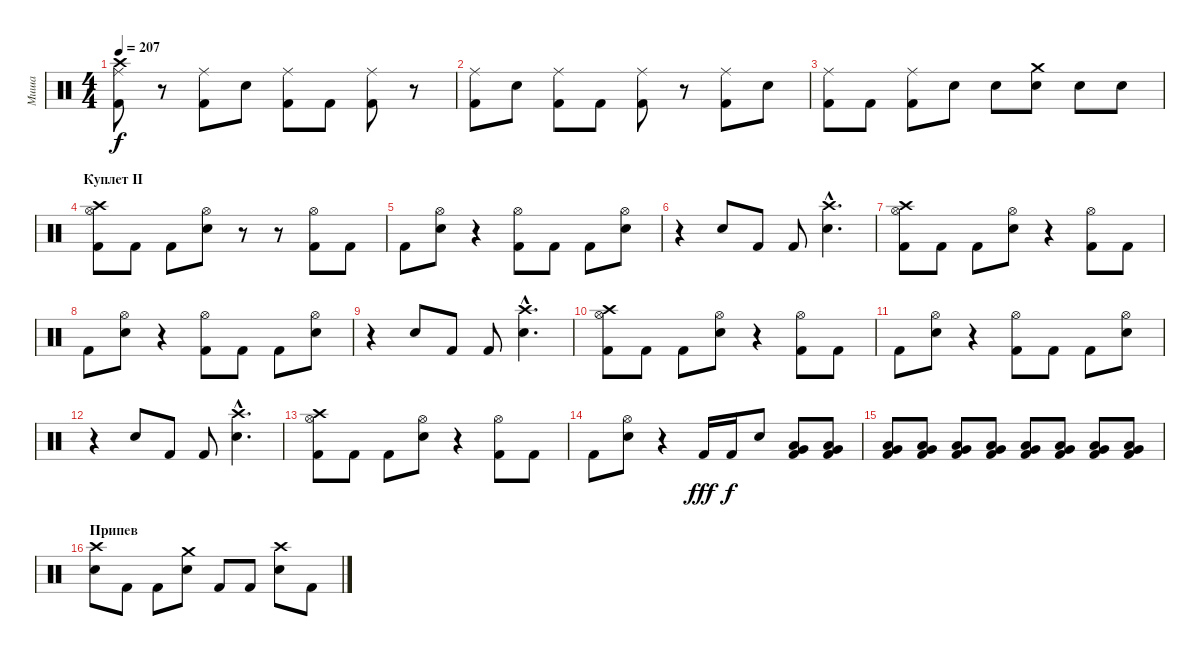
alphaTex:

\track ("Миша" "Миша") {instrument percussion}
\staff {score}
\articulation defaults
\ts (4 4)
\tempo 207
\clef neutral
\ks c
("Kick (hit) 2" "Ride (middle)" "Crash high (hit)").8{dy f} r.8 ("Kick (hit) 2" "Ride (middle)").8 "Snare (hit) 2".8 ("Kick (hit) 2" "Ride (middle)").8 "Kick (hit) 2".8 ("Kick (hit) 2" "Ride (middle)").8 r.8 |
("Kick (hit) 2" "Ride (middle)").8 "Snare (hit) 2".8 ("Kick (hit) 2" "Ride (middle)").8 "Kick (hit) 2".8 ("Kick (hit) 2" "Ride (middle)").8 r.8 ("Kick (hit) 2" "Ride (middle)").8 "Snare (hit) 2".8 |
("Kick (hit) 2" "Ride (middle)").8 "Kick (hit) 2".8 ("Kick (hit) 2" "Ride (middle)").8 "Snare (hit) 2".8 "Snare (hit) 2".8 ("Snare (hit) 2" "Crash medium (hit)").8 "Snare (hit) 2".8 "Snare (hit) 2".8 |
\section ("" "Куплет II")
("Kick (hit) 2" "Hi-Hat (open)" "Crash high (hit)").8 "Kick (hit) 2".8 "Kick (hit) 2".8 ("Snare (hit) 2" "Hi-Hat (open)").8 r.8 r.8 ("Kick (hit) 2" "Hi-Hat (open)").8 "Kick (hit) 2".8 |
"Kick (hit) 2".8 ("Snare (hit) 2" "Hi-Hat (open)").8 r.4 ("Kick (hit) 2" "Hi-Hat (open)").8 "Kick (hit) 2".8 "Kick (hit) 2".8 ("Snare (hit) 2" "Hi-Hat (open)").8 |
r.4 "Snare (hit) 2".8 "Kick (hit) 2".8 "Kick (hit) 2".8 ("Snare (hit) 2"{hac} "Crash high (hit)"{hac}).4{d} |
("Kick (hit) 2" "Hi-Hat (open)" "Crash high (hit)").8 "Kick (hit) 2".8 "Kick (hit) 2".8 ("Snare (hit) 2" "Hi-Hat (open)").8 r.4 ("Kick (hit) 2" "Hi-Hat (open)").8 "Kick (hit) 2".8 |
"Kick (hit) 2".8 ("Snare (hit) 2" "Hi-Hat (open)").8 r.4 ("Kick (hit) 2" "Hi-Hat (open)").8 "Kick (hit) 2".8 "Kick (hit) 2".8 ("Snare (hit) 2" "Hi-Hat (open)").8 |
r.4 "Snare (hit) 2".8 "Kick (hit) 2".8 "Kick (hit) 2".8 ("Snare (hit) 2"{hac} "Crash high (hit)"{hac}).4{d} |
("Kick (hit) 2" "Hi-Hat (open)" "Crash high (hit)").8 "Kick (hit) 2".8 "Kick (hit) 2".8 ("Snare (hit) 2" "Hi-Hat (open)").8 r.4 ("Kick (hit) 2" "Hi-Hat (open)").8 "Kick (hit) 2".8 |
"Kick (hit) 2".8 ("Snare (hit) 2" "Hi-Hat (open)").8 r.4 ("Kick (hit) 2" "Hi-Hat (open)").8 "Kick (hit) 2".8 "Kick (hit) 2".8 ("Snare (hit) 2" "Hi-Hat (open)").8 |
r.4 "Snare (hit) 2".8 "Kick (hit) 2".8 "Kick (hit) 2".8 ("Snare (hit) 2"{hac} "Crash high (hit)"{hac}).4{d} |
("Kick (hit) 2" "Hi-Hat (open)" "Crash high (hit)").8 "Kick (hit) 2".8 "Kick (hit) 2".8 ("Snare (hit) 2" "Hi-Hat (open)").8 r.4 ("Kick (hit) 2" "Hi-Hat (open)").8 "Kick (hit) 2".8 |
"Kick (hit) 2".8 ("Snare (hit) 2" "Hi-Hat (open)").8 r.4 "Kick (hit) 2".16{dy fff} "Kick (hit) 2".16{dy f} "Snare (hit) 2".8 ("Kick (hit) 2" "Low Tom (hit)" "Very Low Tom (hit)").8 ("Kick (hit) 2" "Low Tom (hit)" "Very Low Tom (hit)").8 |
("Kick (hit) 2" "Low Tom (hit)" "Very Low Tom (hit)").8 ("Kick (hit) 2" "Low Tom (hit)" "Very Low Tom (hit)").8 ("Kick (hit) 2" "Low Tom (hit)" "Very Low Tom (hit)").8 ("Kick (hit) 2" "Low Tom (hit)" "Very Low Tom (hit)").8 ("Kick (hit) 2" "Low Tom (hit)" "Very Low Tom (hit)").8 ("Kick (hit) 2" "Low Tom (hit)" "Very Low Tom (hit)").8 ("Kick (hit) 2" "Low Tom (hit)" "Very Low Tom (hit)").8 ("Kick (hit) 2" "Low Tom (hit)" "Very Low Tom (hit)").8 |
\section ("" "Припев")
("Snare (hit) 2" "Crash high (hit)").8 "Kick (hit) 2".8 "Kick (hit) 2".8 ("Snare (hit) 2" "Crash medium (hit)").8 "Kick (hit) 2".8 "Kick (hit) 2".8 ("Snare (hit) 2" "Crash high (hit)").8 "Kick (hit) 2".8
